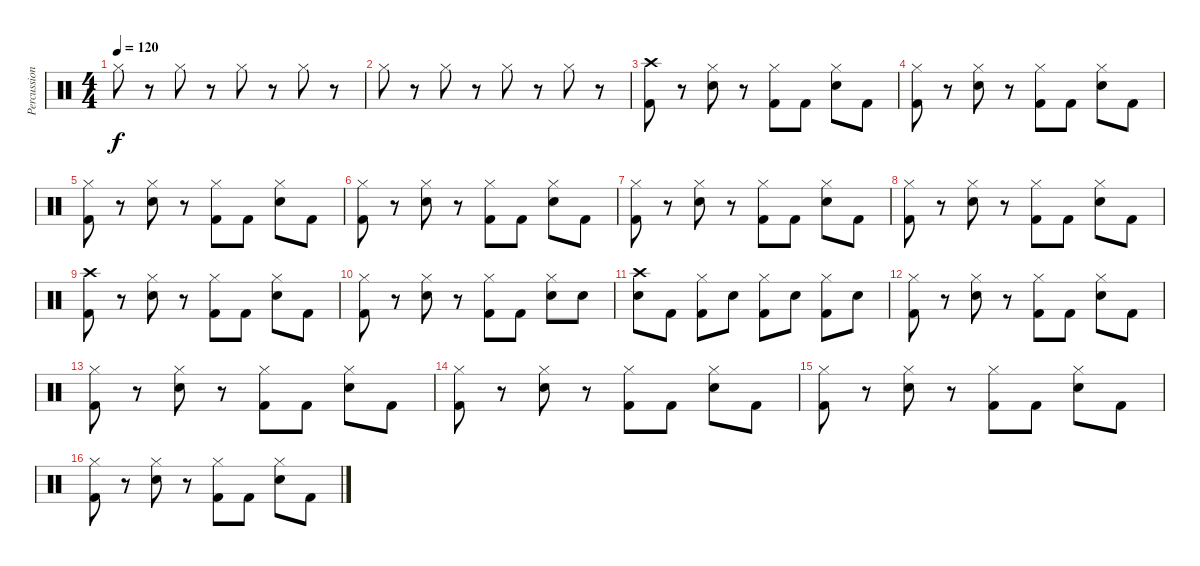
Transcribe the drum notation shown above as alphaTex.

\track ("Percussion" "Percussion") {instrument percussion}
\staff {score}
\articulation defaults
\ts (4 4)
\tempo 120
\clef neutral
\ks c "Hi-Hat (closed)".8{dy f}
r.8 "Hi-Hat (closed)".8 r.8 "Hi-Hat (closed)".8 r.8 "Hi-Hat (closed)".8 r.8 |
"Hi-Hat (closed)".8 r.8 "Hi-Hat (closed)".8 r.8 "Hi-Hat (closed)".8 r.8 "Hi-Hat (closed)".8 r.8 |
("Crash high (hit)" "Kick (hit) 2").8 r.8 ("Hi-Hat (closed)" "Electric Snare (hit)").8 r.8 ("Hi-Hat (closed)" "Kick (hit) 2").8 "Kick (hit) 2".8 ("Hi-Hat (closed)" "Electric Snare (hit)").8 "Kick (hit) 2".8 |
("Hi-Hat (closed)" "Kick (hit) 2").8 r.8 ("Hi-Hat (closed)" "Electric Snare (hit)").8 r.8 ("Hi-Hat (closed)" "Kick (hit) 2").8 "Kick (hit) 2".8 ("Hi-Hat (closed)" "Electric Snare (hit)").8 "Kick (hit) 2".8 |
("Hi-Hat (closed)" "Kick (hit) 2").8 r.8 ("Hi-Hat (closed)" "Electric Snare (hit)").8 r.8 ("Hi-Hat (closed)" "Kick (hit) 2").8 "Kick (hit) 2".8 ("Hi-Hat (closed)" "Electric Snare (hit)").8 "Kick (hit) 2".8 |
("Hi-Hat (closed)" "Kick (hit) 2").8 r.8 ("Hi-Hat (closed)" "Electric Snare (hit)").8 r.8 ("Hi-Hat (closed)" "Kick (hit) 2").8 "Kick (hit) 2".8 ("Hi-Hat (closed)" "Electric Snare (hit)").8 "Kick (hit) 2".8 |
("Hi-Hat (closed)" "Kick (hit) 2").8 r.8 ("Hi-Hat (closed)" "Electric Snare (hit)").8 r.8 ("Hi-Hat (closed)" "Kick (hit) 2").8 "Kick (hit) 2".8 ("Hi-Hat (closed)" "Electric Snare (hit)").8 "Kick (hit) 2".8 |
("Hi-Hat (closed)" "Kick (hit) 2").8 r.8 ("Hi-Hat (closed)" "Electric Snare (hit)").8 r.8 ("Hi-Hat (closed)" "Kick (hit) 2").8 "Kick (hit) 2".8 ("Hi-Hat (closed)" "Electric Snare (hit)").8 "Kick (hit) 2".8 |
("Crash high (hit)" "Kick (hit) 2").8 r.8 ("Hi-Hat (closed)" "Electric Snare (hit)").8 r.8 ("Hi-Hat (closed)" "Kick (hit) 2").8 "Kick (hit) 2".8 ("Hi-Hat (closed)" "Electric Snare (hit)").8 "Kick (hit) 2".8 |
("Hi-Hat (closed)" "Kick (hit) 2").8 r.8 ("Hi-Hat (closed)" "Electric Snare (hit)").8 r.8 ("Hi-Hat (closed)" "Kick (hit) 2").8 "Kick (hit) 2".8 ("Hi-Hat (closed)" "Electric Snare (hit)").8 "Electric Snare (hit)".8 |
("Crash high (hit)" "Electric Snare (hit)").8 "Kick (hit) 2".8 ("Hi-Hat (closed)" "Kick (hit) 2").8 "Electric Snare (hit)".8 ("Hi-Hat (closed)" "Kick (hit) 2").8 "Electric Snare (hit)".8 ("Hi-Hat (closed)" "Kick (hit) 2").8 "Electric Snare (hit)".8 |
("Hi-Hat (closed)" "Kick (hit) 2").8 r.8 ("Hi-Hat (closed)" "Electric Snare (hit)").8 r.8 ("Hi-Hat (closed)" "Kick (hit) 2").8 "Kick (hit) 2".8 ("Hi-Hat (closed)" "Electric Snare (hit)").8 "Kick (hit) 2".8 |
("Hi-Hat (closed)" "Kick (hit) 2").8 r.8 ("Hi-Hat (closed)" "Electric Snare (hit)").8 r.8 ("Hi-Hat (closed)" "Kick (hit) 2").8 "Kick (hit) 2".8 ("Hi-Hat (closed)" "Electric Snare (hit)").8 "Kick (hit) 2".8 |
("Hi-Hat (closed)" "Kick (hit) 2").8 r.8 ("Hi-Hat (closed)" "Electric Snare (hit)").8 r.8 ("Hi-Hat (closed)" "Kick (hit) 2").8 "Kick (hit) 2".8 ("Hi-Hat (closed)" "Electric Snare (hit)").8 "Kick (hit) 2".8 |
("Hi-Hat (closed)" "Kick (hit) 2").8 r.8 ("Hi-Hat (closed)" "Electric Snare (hit)").8 r.8 ("Hi-Hat (closed)" "Kick (hit) 2").8 "Kick (hit) 2".8 ("Hi-Hat (closed)" "Electric Snare (hit)").8 "Kick (hit) 2".8 |
("Hi-Hat (closed)" "Kick (hit) 2").8 r.8 ("Hi-Hat (closed)" "Electric Snare (hit)").8 r.8 ("Hi-Hat (closed)" "Kick (hit) 2").8 "Kick (hit) 2".8 ("Hi-Hat (closed)" "Electric Snare (hit)").8 "Kick (hit) 2".8
